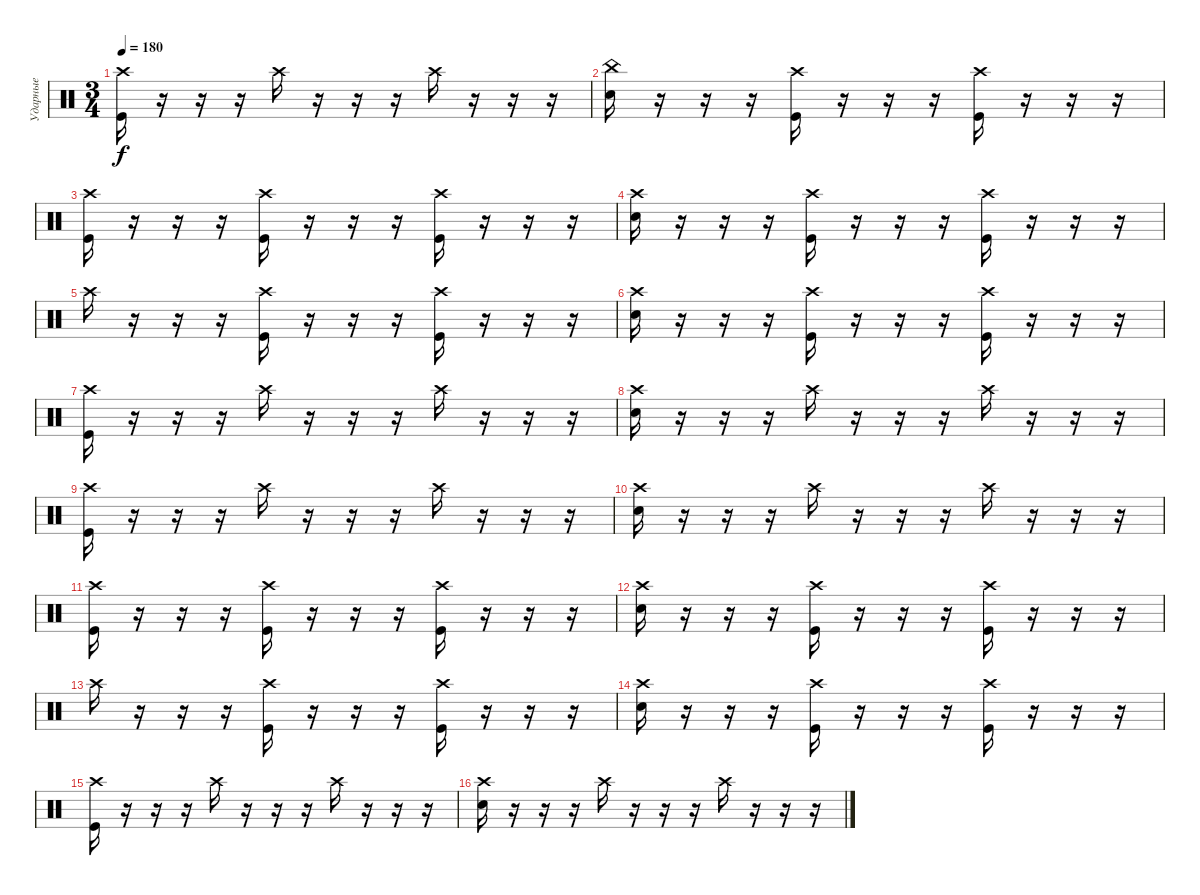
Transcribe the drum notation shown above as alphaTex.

\track ("Ударные" "Ударные") {instrument percussion}
\staff {score}
\articulation defaults
\ts (3 4)
\tempo 180
\clef neutral
\ks c
("Crash high (hit)" "Kick (hit)").16{dy f} r.16 r.16 r.16 "Crash high (hit)".16 r.16 r.16 r.16 "Crash high (hit)".16 r.16 r.16 r.16 |
("China (hit)" "Electric Snare (hit)").16 r.16 r.16 r.16 ("Crash high (hit)" "Kick (hit)").16 r.16 r.16 r.16 ("Crash high (hit)" "Kick (hit)").16 r.16 r.16 r.16 |
("Crash high (hit)" "Kick (hit)").16 r.16 r.16 r.16 ("Crash high (hit)" "Kick (hit)").16 r.16 r.16 r.16 ("Crash high (hit)" "Kick (hit)").16 r.16 r.16 r.16 |
("Crash high (hit)" "Electric Snare (hit)").16 r.16 r.16 r.16 ("Crash high (hit)" "Kick (hit)").16 r.16 r.16 r.16 ("Crash high (hit)" "Kick (hit)").16 r.16 r.16 r.16 |
"Crash high (hit)".16 r.16 r.16 r.16 ("Crash high (hit)" "Kick (hit)").16 r.16 r.16 r.16 ("Crash high (hit)" "Kick (hit)").16 r.16 r.16 r.16 |
("Crash high (hit)" "Electric Snare (hit)").16 r.16 r.16 r.16 ("Crash high (hit)" "Kick (hit)").16 r.16 r.16 r.16 ("Crash high (hit)" "Kick (hit)").16 r.16 r.16 r.16 |
("Crash high (hit)" "Kick (hit)").16 r.16 r.16 r.16 "Crash high (hit)".16 r.16 r.16 r.16 "Crash high (hit)".16 r.16 r.16 r.16 |
("Crash high (hit)" "Electric Snare (hit)").16 r.16 r.16 r.16 "Crash high (hit)".16 r.16 r.16 r.16 "Crash high (hit)".16 r.16 r.16 r.16 |
("Crash high (hit)" "Kick (hit)").16 r.16 r.16 r.16 "Crash high (hit)".16 r.16 r.16 r.16 "Crash high (hit)".16 r.16 r.16 r.16 |
("Crash high (hit)" "Electric Snare (hit)").16 r.16 r.16 r.16 "Crash high (hit)".16 r.16 r.16 r.16 "Crash high (hit)".16 r.16 r.16 r.16 |
("Crash high (hit)" "Kick (hit)").16 r.16 r.16 r.16 ("Crash high (hit)" "Kick (hit)").16 r.16 r.16 r.16 ("Crash high (hit)" "Kick (hit)").16 r.16 r.16 r.16 |
("Crash high (hit)" "Electric Snare (hit)").16 r.16 r.16 r.16 ("Crash high (hit)" "Kick (hit)").16 r.16 r.16 r.16 ("Crash high (hit)" "Kick (hit)").16 r.16 r.16 r.16 |
"Crash high (hit)".16 r.16 r.16 r.16 ("Crash high (hit)" "Kick (hit)").16 r.16 r.16 r.16 ("Crash high (hit)" "Kick (hit)").16 r.16 r.16 r.16 |
("Crash high (hit)" "Electric Snare (hit)").16 r.16 r.16 r.16 ("Crash high (hit)" "Kick (hit)").16 r.16 r.16 r.16 ("Crash high (hit)" "Kick (hit)").16 r.16 r.16 r.16 |
("Crash high (hit)" "Kick (hit)").16 r.16 r.16 r.16 "Crash high (hit)".16 r.16 r.16 r.16 "Crash high (hit)".16 r.16 r.16 r.16 |
("Crash high (hit)" "Electric Snare (hit)").16 r.16 r.16 r.16 "Crash high (hit)".16 r.16 r.16 r.16 "Crash high (hit)".16 r.16 r.16 r.16
